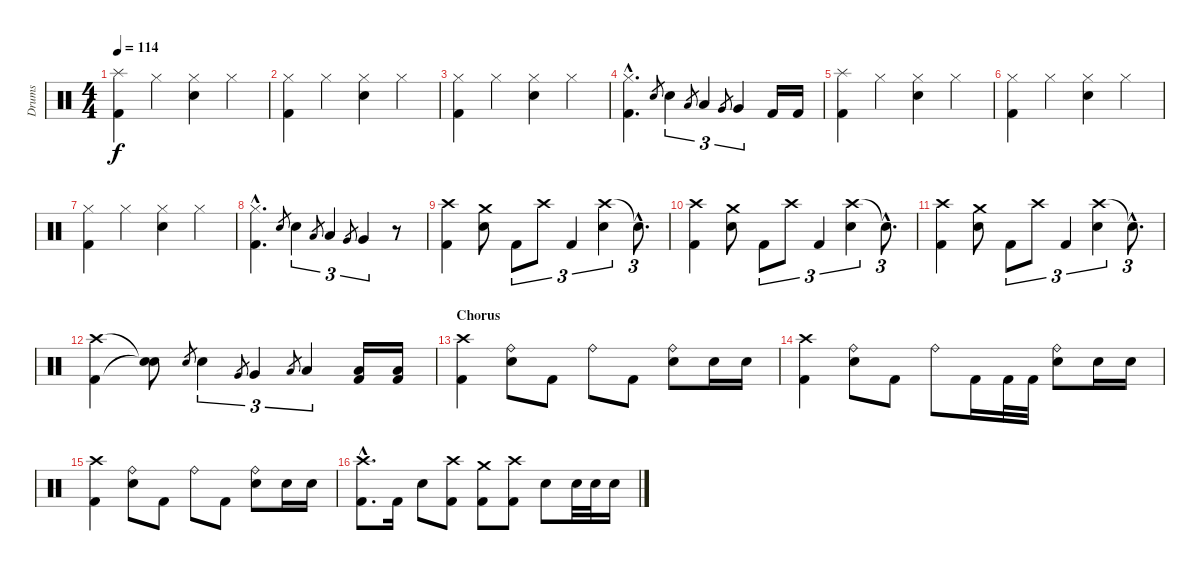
\track ("Drums" "Drums") {instrument percussion}
\staff {score}
\articulation defaults
\ts (4 4)
\tempo 114
\clef neutral
\ks c
("Splash (hit)" "Kick (hit) 2").4{dy f} "Hi-Hat (closed)".4 ("Hi-Hat (closed)" "Electric Snare (hit)").4 "Hi-Hat (closed)".4 |
("Hi-Hat (closed)" "Kick (hit) 2").4 "Hi-Hat (closed)".4 ("Hi-Hat (closed)" "Electric Snare (hit)").4 "Hi-Hat (closed)".4 |
("Hi-Hat (closed)" "Kick (hit) 2").4 "Hi-Hat (closed)".4 ("Hi-Hat (closed)" "Electric Snare (hit)").4 "Hi-Hat (closed)".4 |
("Hi-Hat (closed)"{hac} "Kick (hit) 2"{hac}).4{d} "Electric Snare (hit)".8{gr} "Electric Snare (hit)".4{tu (3 2)} "Low Tom (hit)".8{gr} "Low Tom (hit)".4{tu (3 2)} "Very Low Tom (hit)".8{gr} "Very Low Tom (hit)".4{tu (3 2)} "Kick (hit) 2".16 "Kick (hit) 2".16 |
("Splash (hit)" "Kick (hit) 2").4 "Hi-Hat (closed)".4 ("Hi-Hat (closed)" "Electric Snare (hit)").4 "Hi-Hat (closed)".4 |
("Hi-Hat (closed)" "Kick (hit) 2").4 "Hi-Hat (closed)".4 ("Hi-Hat (closed)" "Electric Snare (hit)").4 "Hi-Hat (closed)".4 |
("Hi-Hat (closed)" "Kick (hit) 2").4 "Hi-Hat (closed)".4 ("Hi-Hat (closed)" "Electric Snare (hit)").4 "Hi-Hat (closed)".4 |
("Hi-Hat (closed)"{hac} "Kick (hit) 2"{hac}).4{d} "Electric Snare (hit)".8{gr} "Electric Snare (hit)".4{tu (3 2)} "Low Tom (hit)".8{gr} "Low Tom (hit)".4{tu (3 2)} "Very Low Tom (hit)".8{gr} "Very Low Tom (hit)".4{tu (3 2)} r.8 |
\section ("" "")
("Crash high (hit)" "Kick (hit) 2").4 ("Crash medium (hit)" "Electric Snare (hit)").8 "Kick (hit) 2".8{tu (3 2)} "Crash high (hit)".8{tu (3 2)} "Kick (hit) 2".4{tu (3 2)} ("Crash high (hit)" "Electric Snare (hit)").4{tu (3 2)} "Snare (hit)"{hac t}.8{d tu (3 2)} |
("Crash high (hit)" "Kick (hit) 2").4 ("Crash medium (hit)" "Electric Snare (hit)").8 "Kick (hit) 2".8{tu (3 2)} "Crash high (hit)".8{tu (3 2)} "Kick (hit) 2".4{tu (3 2)} ("Crash high (hit)" "Electric Snare (hit)").4{tu (3 2)} "Snare (hit)"{hac t}.8{d tu (3 2)} |
("Crash high (hit)" "Kick (hit) 2").4 ("Crash medium (hit)" "Electric Snare (hit)").8 "Kick (hit) 2".8{tu (3 2)} "Crash high (hit)".8{tu (3 2)} "Kick (hit) 2".4{tu (3 2)} ("Crash high (hit)" "Electric Snare (hit)").4{tu (3 2)} "Snare (hit)"{hac t}.8{d tu (3 2)} |
("Crash high (hit)" "Kick (hit) 2").4 ("Snare (hit)"{t} "Snare (hit)"{t}).8 "Electric Snare (hit)".8{gr} "Electric Snare (hit)".4{tu (3 2)} "Very Low Tom (hit)".8{gr} "Very Low Tom (hit)".4{tu (3 2)} "Low Floor Tom (hit)".8{gr} "Low Floor Tom (hit)".4{tu (3 2)} ("Low Floor Tom (hit)" "Kick (hit) 2").16 ("Low Floor Tom (hit)" "Kick (hit) 2").16 |
\section ("" "Chorus")
("Crash high (hit)" "Kick (hit) 2").4 ("Ride (bell)" "Electric Snare (hit)").8 "Kick (hit) 2".8 "Ride (bell)".8 "Kick (hit) 2".8 ("Ride (bell)" "Electric Snare (hit)").8 "Electric Snare (hit)".16 "Electric Snare (hit)".16 |
("Crash high (hit)" "Kick (hit) 2").4 ("Ride (bell)" "Electric Snare (hit)").8 "Kick (hit) 2".8 "Ride (bell)".8 "Kick (hit) 2".16 "Kick (hit) 2".32 "Kick (hit) 2".32 ("Ride (bell)" "Electric Snare (hit)").8 "Electric Snare (hit)".16 "Electric Snare (hit)".16 |
("Crash high (hit)" "Kick (hit) 2").4 ("Ride (bell)" "Electric Snare (hit)").8 "Kick (hit) 2".8 "Ride (bell)".8 "Kick (hit) 2".8 ("Ride (bell)" "Electric Snare (hit)").8 "Electric Snare (hit)".16 "Electric Snare (hit)".16 |
("Crash high (hit)"{hac} "Kick (hit) 2"{hac}).8{d} "Kick (hit) 2".16 "Electric Snare (hit)".8 ("Crash high (hit)" "Kick (hit) 2").8 ("Crash medium (hit)" "Kick (hit) 2").8 ("Crash high (hit)" "Kick (hit) 2").8 "Electric Snare (hit)".8 "Electric Snare (hit)".32 "Electric Snare (hit)".32 "Electric Snare (hit)".16
